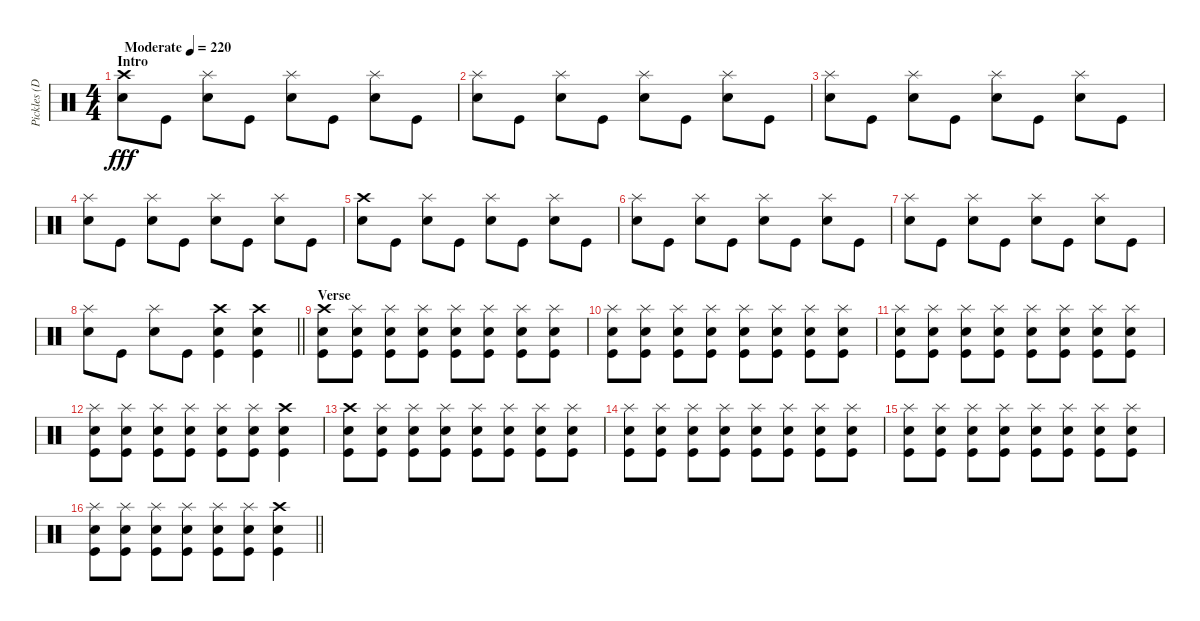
\track ("Pickles (Drums)" "Pickles (D") {instrument percussion}
\staff {score}
\articulation defaults
\ts (4 4)
\section ("" "Intro")
\tempo (220 "Moderate")
\clef neutral
\ks c
("Crash high (hit)" "Electric Snare (hit)").8{dy fff} "Kick (hit)".8 ("Splash (hit)" "Electric Snare (hit)").8 "Kick (hit)".8 ("Splash (hit)" "Electric Snare (hit)").8 "Kick (hit)".8 ("Splash (hit)" "Electric Snare (hit)").8 "Kick (hit)".8 |
("Splash (hit)" "Electric Snare (hit)").8 "Kick (hit)".8 ("Splash (hit)" "Electric Snare (hit)").8 "Kick (hit)".8 ("Splash (hit)" "Electric Snare (hit)").8 "Kick (hit)".8 ("Splash (hit)" "Electric Snare (hit)").8 "Kick (hit)".8 |
("Splash (hit)" "Electric Snare (hit)").8 "Kick (hit)".8 ("Splash (hit)" "Electric Snare (hit)").8 "Kick (hit)".8 ("Splash (hit)" "Electric Snare (hit)").8 "Kick (hit)".8 ("Splash (hit)" "Electric Snare (hit)").8 "Kick (hit)".8 |
("Splash (hit)" "Electric Snare (hit)").8 "Kick (hit)".8 ("Splash (hit)" "Electric Snare (hit)").8 "Kick (hit)".8 ("Splash (hit)" "Electric Snare (hit)").8 "Kick (hit)".8 ("Splash (hit)" "Electric Snare (hit)").8 "Kick (hit)".8 |
("Crash high (hit)" "Electric Snare (hit)").8 "Kick (hit)".8 ("Splash (hit)" "Electric Snare (hit)").8 "Kick (hit)".8 ("Splash (hit)" "Electric Snare (hit)").8 "Kick (hit)".8 ("Splash (hit)" "Electric Snare (hit)").8 "Kick (hit)".8 |
("Splash (hit)" "Electric Snare (hit)").8 "Kick (hit)".8 ("Splash (hit)" "Electric Snare (hit)").8 "Kick (hit)".8 ("Splash (hit)" "Electric Snare (hit)").8 "Kick (hit)".8 ("Splash (hit)" "Electric Snare (hit)").8 "Kick (hit)".8 |
("Splash (hit)" "Electric Snare (hit)").8 "Kick (hit)".8 ("Splash (hit)" "Electric Snare (hit)").8 "Kick (hit)".8 ("Splash (hit)" "Electric Snare (hit)").8 "Kick (hit)".8 ("Splash (hit)" "Electric Snare (hit)").8 "Kick (hit)".8 |
\barLineRight lightlight
("Splash (hit)" "Electric Snare (hit)").8 "Kick (hit)".8 ("Splash (hit)" "Electric Snare (hit)").8 "Kick (hit)".8 ("Crash high (hit)" "Electric Snare (hit)" "Kick (hit)").4 ("Crash high (hit)" "Electric Snare (hit)" "Kick (hit)").4 |
\section ("" "Verse")
("Crash high (hit)" "Electric Snare (hit)" "Kick (hit)").8 ("Splash (hit)" "Electric Snare (hit)" "Kick (hit)").8 ("Splash (hit)" "Electric Snare (hit)" "Kick (hit)").8 ("Splash (hit)" "Electric Snare (hit)" "Kick (hit)").8 ("Splash (hit)" "Electric Snare (hit)" "Kick (hit)").8 ("Splash (hit)" "Electric Snare (hit)" "Kick (hit)").8 ("Splash (hit)" "Electric Snare (hit)" "Kick (hit)").8 ("Splash (hit)" "Electric Snare (hit)" "Kick (hit)").8 |
("Splash (hit)" "Electric Snare (hit)" "Kick (hit)").8 ("Splash (hit)" "Electric Snare (hit)" "Kick (hit)").8 ("Splash (hit)" "Electric Snare (hit)" "Kick (hit)").8 ("Splash (hit)" "Electric Snare (hit)" "Kick (hit)").8 ("Splash (hit)" "Electric Snare (hit)" "Kick (hit)").8 ("Splash (hit)" "Electric Snare (hit)" "Kick (hit)").8 ("Splash (hit)" "Electric Snare (hit)" "Kick (hit)").8 ("Splash (hit)" "Electric Snare (hit)" "Kick (hit)").8 |
("Splash (hit)" "Electric Snare (hit)" "Kick (hit)").8 ("Splash (hit)" "Electric Snare (hit)" "Kick (hit)").8 ("Splash (hit)" "Electric Snare (hit)" "Kick (hit)").8 ("Splash (hit)" "Electric Snare (hit)" "Kick (hit)").8 ("Splash (hit)" "Electric Snare (hit)" "Kick (hit)").8 ("Splash (hit)" "Electric Snare (hit)" "Kick (hit)").8 ("Splash (hit)" "Electric Snare (hit)" "Kick (hit)").8 ("Splash (hit)" "Electric Snare (hit)" "Kick (hit)").8 |
("Splash (hit)" "Electric Snare (hit)" "Kick (hit)").8 ("Splash (hit)" "Electric Snare (hit)" "Kick (hit)").8 ("Splash (hit)" "Electric Snare (hit)" "Kick (hit)").8 ("Splash (hit)" "Electric Snare (hit)" "Kick (hit)").8 ("Splash (hit)" "Electric Snare (hit)" "Kick (hit)").8 ("Splash (hit)" "Electric Snare (hit)" "Kick (hit)").8 ("Crash high (hit)" "Electric Snare (hit)" "Kick (hit)").4 |
("Crash high (hit)" "Electric Snare (hit)" "Kick (hit)").8 ("Splash (hit)" "Electric Snare (hit)" "Kick (hit)").8 ("Splash (hit)" "Electric Snare (hit)" "Kick (hit)").8 ("Splash (hit)" "Electric Snare (hit)" "Kick (hit)").8 ("Splash (hit)" "Electric Snare (hit)" "Kick (hit)").8 ("Splash (hit)" "Electric Snare (hit)" "Kick (hit)").8 ("Splash (hit)" "Electric Snare (hit)" "Kick (hit)").8 ("Splash (hit)" "Electric Snare (hit)" "Kick (hit)").8 |
("Splash (hit)" "Electric Snare (hit)" "Kick (hit)").8 ("Splash (hit)" "Electric Snare (hit)" "Kick (hit)").8 ("Splash (hit)" "Electric Snare (hit)" "Kick (hit)").8 ("Splash (hit)" "Electric Snare (hit)" "Kick (hit)").8 ("Splash (hit)" "Electric Snare (hit)" "Kick (hit)").8 ("Splash (hit)" "Electric Snare (hit)" "Kick (hit)").8 ("Splash (hit)" "Electric Snare (hit)" "Kick (hit)").8 ("Splash (hit)" "Electric Snare (hit)" "Kick (hit)").8 |
("Splash (hit)" "Electric Snare (hit)" "Kick (hit)").8 ("Splash (hit)" "Electric Snare (hit)" "Kick (hit)").8 ("Splash (hit)" "Electric Snare (hit)" "Kick (hit)").8 ("Splash (hit)" "Electric Snare (hit)" "Kick (hit)").8 ("Splash (hit)" "Electric Snare (hit)" "Kick (hit)").8 ("Splash (hit)" "Electric Snare (hit)" "Kick (hit)").8 ("Splash (hit)" "Electric Snare (hit)" "Kick (hit)").8 ("Splash (hit)" "Electric Snare (hit)" "Kick (hit)").8 |
\barLineRight lightlight
("Splash (hit)" "Electric Snare (hit)" "Kick (hit)").8 ("Splash (hit)" "Electric Snare (hit)" "Kick (hit)").8 ("Splash (hit)" "Electric Snare (hit)" "Kick (hit)").8 ("Splash (hit)" "Electric Snare (hit)" "Kick (hit)").8 ("Splash (hit)" "Electric Snare (hit)" "Kick (hit)").8 ("Splash (hit)" "Electric Snare (hit)" "Kick (hit)").8 ("Crash high (hit)" "Electric Snare (hit)" "Kick (hit)").4
